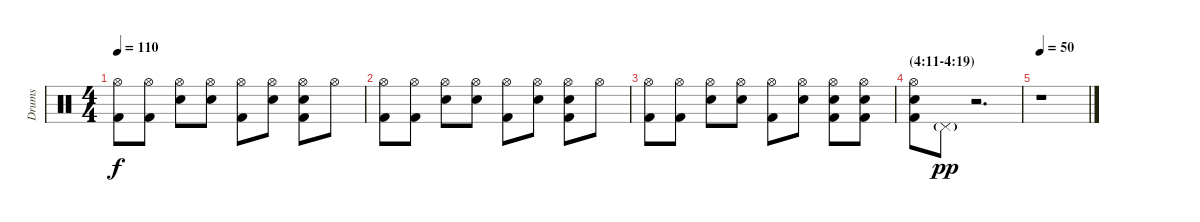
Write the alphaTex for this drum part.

\track ("Drums" "Drums") {instrument percussion}
\staff {score}
\articulation defaults
\ts (4 4)
\tempo 110
\clef neutral
\ks c
("Hi-Hat (open)" "Kick (hit) 2").8{dy f} ("Hi-Hat (open)" "Kick (hit) 2").8 ("Hi-Hat (open)" "Snare (hit) 2").8 ("Hi-Hat (open)" "Snare (hit) 2").8 ("Hi-Hat (open)" "Kick (hit) 2").8 ("Hi-Hat (open)" "Snare (hit) 2").8 ("Hi-Hat (open)" "Snare (hit) 2" "Kick (hit) 2").8 "Hi-Hat (open)".8 |
("Hi-Hat (open)" "Kick (hit) 2").8 ("Hi-Hat (open)" "Kick (hit) 2").8 ("Hi-Hat (open)" "Snare (hit) 2").8 ("Hi-Hat (open)" "Snare (hit) 2").8 ("Hi-Hat (open)" "Kick (hit) 2").8 ("Hi-Hat (open)" "Snare (hit) 2").8 ("Hi-Hat (open)" "Snare (hit) 2" "Kick (hit) 2").8 "Hi-Hat (open)".8 |
("Hi-Hat (open)" "Kick (hit) 2").8 ("Hi-Hat (open)" "Kick (hit) 2").8 ("Hi-Hat (open)" "Snare (hit) 2").8 ("Hi-Hat (open)" "Snare (hit) 2").8 ("Hi-Hat (open)" "Kick (hit) 2").8 ("Hi-Hat (open)" "Snare (hit) 2").8 ("Hi-Hat (open)" "Snare (hit) 2" "Kick (hit) 2").8 ("Hi-Hat (open)" "Snare (hit) 2" "Kick (hit) 2").8 |
\section ("" "(4:11-4:19)")
("Hi-Hat (open)" "Snare (hit) 2" "Kick (hit) 2").8 "Pedal Hi-Hat (hit)"{g}.8{dy pp} r.2{d} |
\tempo 50
r.1
